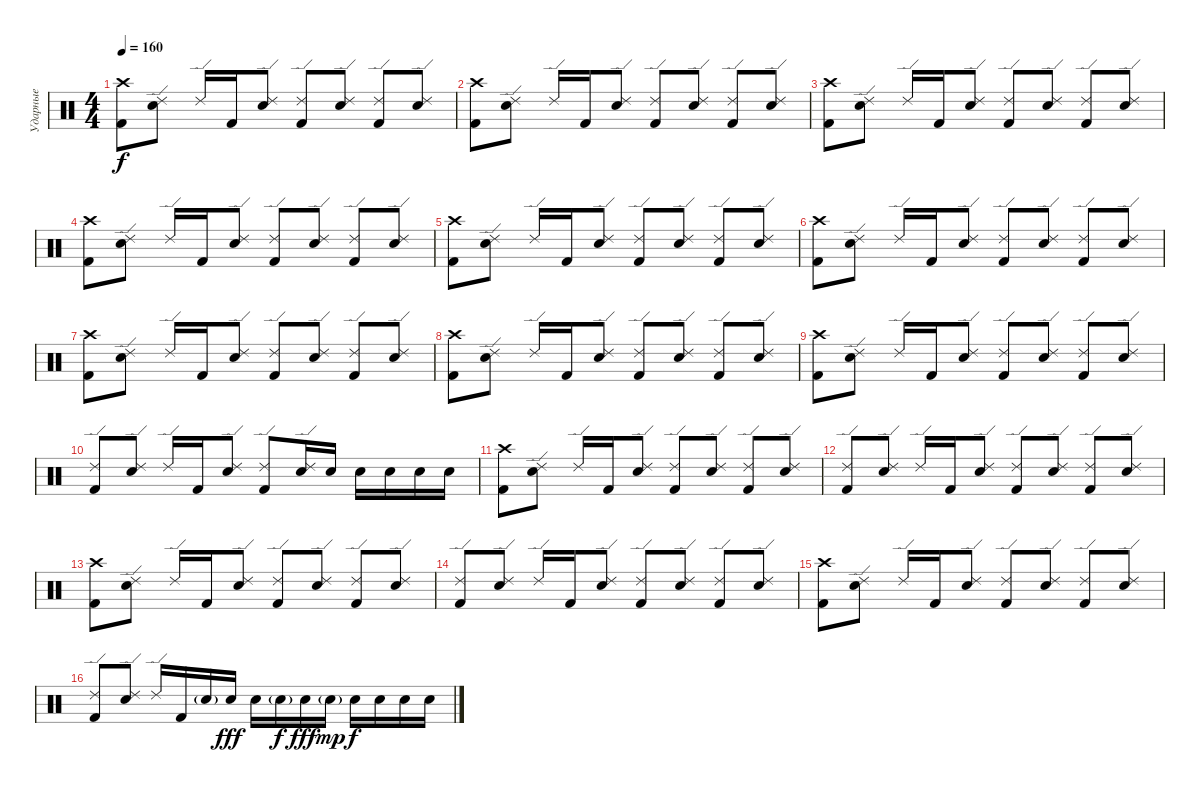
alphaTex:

\track ("Ударные" "Ударные") {instrument percussion}
\staff {score}
\articulation defaults
\ts (4 4)
\tempo 160
\clef neutral
\ks c
("Kick (hit) 2" "Crash high (hit)").8{dy f} ("Electric Snare (hit)" "Ride (edge) 2").8 "Ride (edge) 2".16 "Kick (hit) 2".16 ("Electric Snare (hit)" "Ride (edge) 2").8 ("Kick (hit) 2" "Ride (edge) 2").8 ("Electric Snare (hit)" "Ride (edge) 2").8 ("Kick (hit) 2" "Ride (edge) 2").8 ("Electric Snare (hit)" "Ride (edge) 2").8 |
("Kick (hit) 2" "Crash high (hit)").8 ("Electric Snare (hit)" "Ride (edge) 2").8 "Ride (edge) 2".16 "Kick (hit) 2".16 ("Electric Snare (hit)" "Ride (edge) 2").8 ("Kick (hit) 2" "Ride (edge) 2").8 ("Electric Snare (hit)" "Ride (edge) 2").8 ("Kick (hit) 2" "Ride (edge) 2").8 ("Electric Snare (hit)" "Ride (edge) 2").8 |
("Kick (hit) 2" "Crash high (hit)").8 ("Electric Snare (hit)" "Ride (edge) 2").8 "Ride (edge) 2".16 "Kick (hit) 2".16 ("Electric Snare (hit)" "Ride (edge) 2").8 ("Kick (hit) 2" "Ride (edge) 2").8 ("Electric Snare (hit)" "Ride (edge) 2").8 ("Kick (hit) 2" "Ride (edge) 2").8 ("Electric Snare (hit)" "Ride (edge) 2").8 |
("Kick (hit) 2" "Crash high (hit)").8 ("Electric Snare (hit)" "Ride (edge) 2").8 "Ride (edge) 2".16 "Kick (hit) 2".16 ("Electric Snare (hit)" "Ride (edge) 2").8 ("Kick (hit) 2" "Ride (edge) 2").8 ("Electric Snare (hit)" "Ride (edge) 2").8 ("Kick (hit) 2" "Ride (edge) 2").8 ("Electric Snare (hit)" "Ride (edge) 2").8 |
("Kick (hit) 2" "Crash high (hit)").8 ("Electric Snare (hit)" "Ride (edge) 2").8 "Ride (edge) 2".16 "Kick (hit) 2".16 ("Electric Snare (hit)" "Ride (edge) 2").8 ("Kick (hit) 2" "Ride (edge) 2").8 ("Electric Snare (hit)" "Ride (edge) 2").8 ("Kick (hit) 2" "Ride (edge) 2").8 ("Electric Snare (hit)" "Ride (edge) 2").8 |
("Kick (hit) 2" "Crash high (hit)").8 ("Electric Snare (hit)" "Ride (edge) 2").8 "Ride (edge) 2".16 "Kick (hit) 2".16 ("Electric Snare (hit)" "Ride (edge) 2").8 ("Kick (hit) 2" "Ride (edge) 2").8 ("Electric Snare (hit)" "Ride (edge) 2").8 ("Kick (hit) 2" "Ride (edge) 2").8 ("Electric Snare (hit)" "Ride (edge) 2").8 |
("Kick (hit) 2" "Crash high (hit)").8 ("Electric Snare (hit)" "Ride (edge) 2").8 "Ride (edge) 2".16 "Kick (hit) 2".16 ("Electric Snare (hit)" "Ride (edge) 2").8 ("Kick (hit) 2" "Ride (edge) 2").8 ("Electric Snare (hit)" "Ride (edge) 2").8 ("Kick (hit) 2" "Ride (edge) 2").8 ("Electric Snare (hit)" "Ride (edge) 2").8 |
("Kick (hit) 2" "Crash high (hit)").8 ("Electric Snare (hit)" "Ride (edge) 2").8 "Ride (edge) 2".16 "Kick (hit) 2".16 ("Electric Snare (hit)" "Ride (edge) 2").8 ("Kick (hit) 2" "Ride (edge) 2").8 ("Electric Snare (hit)" "Ride (edge) 2").8 ("Kick (hit) 2" "Ride (edge) 2").8 ("Electric Snare (hit)" "Ride (edge) 2").8 |
("Kick (hit) 2" "Crash high (hit)").8 ("Electric Snare (hit)" "Ride (edge) 2").8 "Ride (edge) 2".16 "Kick (hit) 2".16 ("Electric Snare (hit)" "Ride (edge) 2").8 ("Kick (hit) 2" "Ride (edge) 2").8 ("Electric Snare (hit)" "Ride (edge) 2").8 ("Kick (hit) 2" "Ride (edge) 2").8 ("Electric Snare (hit)" "Ride (edge) 2").8 |
("Kick (hit) 2" "Ride (edge) 2").8 ("Electric Snare (hit)" "Ride (edge) 2").8 "Ride (edge) 2".16 "Kick (hit) 2".16 ("Electric Snare (hit)" "Ride (edge) 2").8 ("Kick (hit) 2" "Ride (edge) 2").8 ("Electric Snare (hit)" "Ride (edge) 2").16 "Electric Snare (hit)".16 "Electric Snare (hit)".16 "Electric Snare (hit)".16 "Electric Snare (hit)".16 "Electric Snare (hit)".16 |
("Kick (hit) 2" "Crash high (hit)").8 ("Electric Snare (hit)" "Ride (edge) 2").8 "Ride (edge) 2".16 "Kick (hit) 2".16 ("Electric Snare (hit)" "Ride (edge) 2").8 ("Kick (hit) 2" "Ride (edge) 2").8 ("Electric Snare (hit)" "Ride (edge) 2").8 ("Kick (hit) 2" "Ride (edge) 2").8 ("Electric Snare (hit)" "Ride (edge) 2").8 |
("Kick (hit) 2" "Ride (edge) 2").8 ("Electric Snare (hit)" "Ride (edge) 2").8 "Ride (edge) 2".16 "Kick (hit) 2".16 ("Electric Snare (hit)" "Ride (edge) 2").8 ("Kick (hit) 2" "Ride (edge) 2").8 ("Electric Snare (hit)" "Ride (edge) 2").8 ("Kick (hit) 2" "Ride (edge) 2").8 ("Electric Snare (hit)" "Ride (edge) 2").8 |
("Kick (hit) 2" "Crash high (hit)").8 ("Electric Snare (hit)" "Ride (edge) 2").8 "Ride (edge) 2".16 "Kick (hit) 2".16 ("Electric Snare (hit)" "Ride (edge) 2").8 ("Kick (hit) 2" "Ride (edge) 2").8 ("Electric Snare (hit)" "Ride (edge) 2").8 ("Kick (hit) 2" "Ride (edge) 2").8 ("Electric Snare (hit)" "Ride (edge) 2").8 |
("Kick (hit) 2" "Ride (edge) 2").8 ("Electric Snare (hit)" "Ride (edge) 2").8 "Ride (edge) 2".16 "Kick (hit) 2".16 ("Electric Snare (hit)" "Ride (edge) 2").8 ("Kick (hit) 2" "Ride (edge) 2").8 ("Electric Snare (hit)" "Ride (edge) 2").8 ("Kick (hit) 2" "Ride (edge) 2").8 ("Electric Snare (hit)" "Ride (edge) 2").8 |
("Kick (hit) 2" "Crash high (hit)").8 ("Electric Snare (hit)" "Ride (edge) 2").8 "Ride (edge) 2".16 "Kick (hit) 2".16 ("Electric Snare (hit)" "Ride (edge) 2").8 ("Kick (hit) 2" "Ride (edge) 2").8 ("Electric Snare (hit)" "Ride (edge) 2").8 ("Kick (hit) 2" "Ride (edge) 2").8 ("Electric Snare (hit)" "Ride (edge) 2").8 |
("Kick (hit) 2" "Ride (edge) 2").8 ("Electric Snare (hit)" "Ride (edge) 2").8 "Ride (edge) 2".16 "Kick (hit) 2".16 "Electric Snare (hit)"{g}.16 "Electric Snare (hit)".16{dy fff} "Electric Snare (hit)".16 "Electric Snare (hit)"{g}.16{dy f} "Electric Snare (hit)".16{dy fff} "Electric Snare (hit)"{g}.16{dy mp} "Electric Snare (hit)".16{dy f} "Electric Snare (hit)".16 "Electric Snare (hit)".16 "Electric Snare (hit)".16
